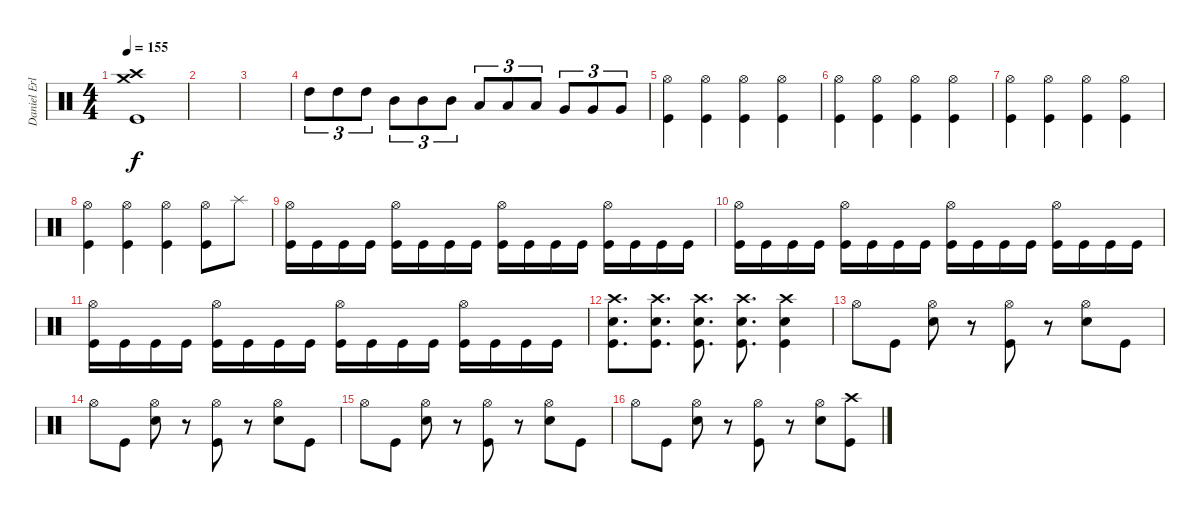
\track ("Daniel Erlandsson" "Daniel Erl") {instrument percussion}
\staff {score}
\articulation defaults
\ts (4 4)
\tempo 155
\clef neutral
\ks c
("Crash high (hit)" "Crash medium (hit)" "Kick (hit)").1{dy f} |
|
|
"High Tom (hit)".8{tu (3 2)} "High Tom (hit)".8{tu (3 2)} "High Tom (hit)".8{tu (3 2)} "Mid Tom (hit)".8{tu (3 2)} "Mid Tom (hit)".8{tu (3 2)} "Mid Tom (hit)".8{tu (3 2)} "Low Tom (hit)".8{tu (3 2)} "Low Tom (hit)".8{tu (3 2)} "Low Tom (hit)".8{tu (3 2)} "Very Low Tom (hit)".8{tu (3 2)} "Very Low Tom (hit)".8{tu (3 2)} "Very Low Tom (hit)".8{tu (3 2)} |
("Hi-Hat (open)" "Kick (hit)").4 ("Hi-Hat (open)" "Kick (hit)").4 ("Hi-Hat (open)" "Kick (hit)").4 ("Hi-Hat (open)" "Kick (hit)").4 |
("Hi-Hat (open)" "Kick (hit)").4 ("Hi-Hat (open)" "Kick (hit)").4 ("Hi-Hat (open)" "Kick (hit)").4 ("Hi-Hat (open)" "Kick (hit)").4 |
("Hi-Hat (open)" "Kick (hit)").4 ("Hi-Hat (open)" "Kick (hit)").4 ("Hi-Hat (open)" "Kick (hit)").4 ("Hi-Hat (open)" "Kick (hit)").4 |
("Hi-Hat (open)" "Kick (hit)").4 ("Hi-Hat (open)" "Kick (hit)").4 ("Hi-Hat (open)" "Kick (hit)").4 ("Hi-Hat (open)" "Kick (hit)").8 "Splash (hit)".8 |
("Hi-Hat (open)" "Kick (hit)").16 "Kick (hit)".16 "Kick (hit)".16 "Kick (hit)".16 ("Hi-Hat (open)" "Kick (hit)").16 "Kick (hit)".16 "Kick (hit)".16 "Kick (hit)".16 ("Hi-Hat (open)" "Kick (hit)").16 "Kick (hit)".16 "Kick (hit)".16 "Kick (hit)".16 ("Hi-Hat (open)" "Kick (hit)").16 "Kick (hit)".16 "Kick (hit)".16 "Kick (hit)".16 |
("Hi-Hat (open)" "Kick (hit)").16 "Kick (hit)".16 "Kick (hit)".16 "Kick (hit)".16 ("Hi-Hat (open)" "Kick (hit)").16 "Kick (hit)".16 "Kick (hit)".16 "Kick (hit)".16 ("Hi-Hat (open)" "Kick (hit)").16 "Kick (hit)".16 "Kick (hit)".16 "Kick (hit)".16 ("Hi-Hat (open)" "Kick (hit)").16 "Kick (hit)".16 "Kick (hit)".16 "Kick (hit)".16 |
("Hi-Hat (open)" "Kick (hit)").16 "Kick (hit)".16 "Kick (hit)".16 "Kick (hit)".16 ("Hi-Hat (open)" "Kick (hit)").16 "Kick (hit)".16 "Kick (hit)".16 "Kick (hit)".16 ("Hi-Hat (open)" "Kick (hit)").16 "Kick (hit)".16 "Kick (hit)".16 "Kick (hit)".16 ("Hi-Hat (open)" "Kick (hit)").16 "Kick (hit)".16 "Kick (hit)".16 "Kick (hit)".16 |
("Crash high (hit)" "Snare (hit) 2" "Kick (hit)").8{d} ("Crash high (hit)" "Snare (hit) 2" "Kick (hit)").8{d} ("Crash high (hit)" "Snare (hit) 2" "Kick (hit)").8{d} ("Crash high (hit)" "Snare (hit) 2" "Kick (hit)").8{d} ("Crash high (hit)" "Snare (hit) 2" "Kick (hit)").4 |
"Hi-Hat (open)".8 "Kick (hit)".8 ("Hi-Hat (open)" "Snare (hit) 2").8 r.8 ("Hi-Hat (open)" "Kick (hit)").8 r.8 ("Hi-Hat (open)" "Snare (hit) 2").8 "Kick (hit)".8 |
"Hi-Hat (open)".8 "Kick (hit)".8 ("Hi-Hat (open)" "Snare (hit) 2").8 r.8 ("Hi-Hat (open)" "Kick (hit)").8 r.8 ("Hi-Hat (open)" "Snare (hit) 2").8 "Kick (hit)".8 |
"Hi-Hat (open)".8 "Kick (hit)".8 ("Hi-Hat (open)" "Snare (hit) 2").8 r.8 ("Hi-Hat (open)" "Kick (hit)").8 r.8 ("Hi-Hat (open)" "Snare (hit) 2").8 "Kick (hit)".8 |
"Hi-Hat (open)".8 "Kick (hit)".8 ("Hi-Hat (open)" "Snare (hit) 2").8 r.8 ("Hi-Hat (open)" "Kick (hit)").8 r.8 ("Hi-Hat (open)" "Snare (hit) 2").8 ("Crash high (hit)" "Kick (hit)").8
